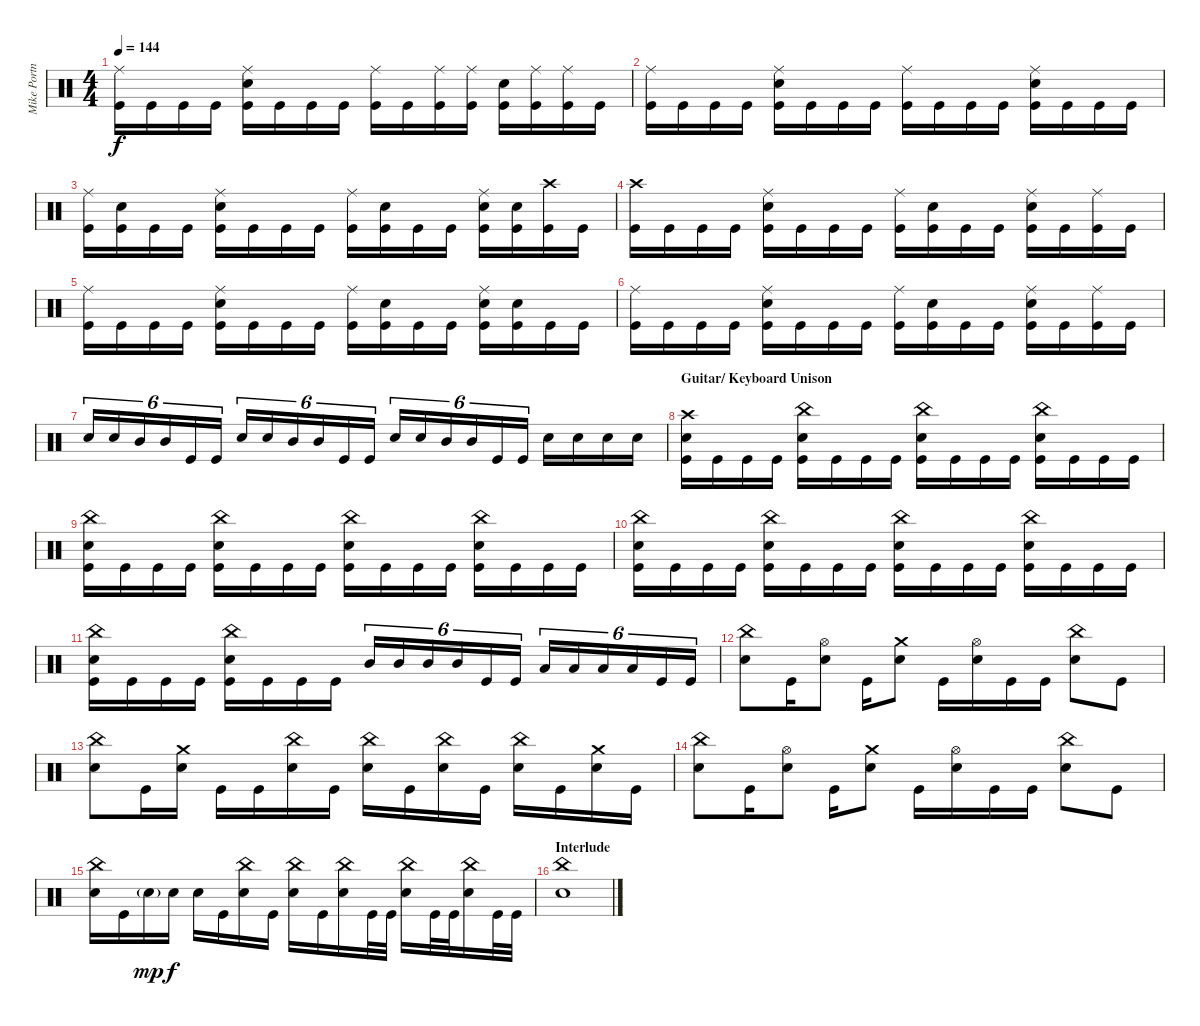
\track ("Mike Portnoy" "Mike Portn") {instrument percussion}
\staff {score}
\articulation defaults
\ts (4 4)
\tempo 144
\clef neutral
\ks c
("Ride (middle)" "Kick (hit)").16{dy f} "Kick (hit)".16 "Kick (hit)".16 "Kick (hit)".16 ("Ride (middle)" "Electric Snare (hit)" "Kick (hit)").16 "Kick (hit)".16 "Kick (hit)".16 "Kick (hit)".16 ("Ride (middle)" "Kick (hit)").16 "Kick (hit)".16 ("Ride (middle)" "Kick (hit)").16 ("Ride (middle)" "Kick (hit)").16 ("Electric Snare (hit)" "Kick (hit)").16 ("Ride (middle)" "Kick (hit)").16 ("Ride (middle)" "Kick (hit)").16 "Kick (hit)".16 |
("Ride (middle)" "Kick (hit)").16 "Kick (hit)".16 "Kick (hit)".16 "Kick (hit)".16 ("Ride (middle)" "Electric Snare (hit)" "Kick (hit)").16 "Kick (hit)".16 "Kick (hit)".16 "Kick (hit)".16 ("Ride (middle)" "Kick (hit)").16 "Kick (hit)".16 "Kick (hit)".16 "Kick (hit)".16 ("Ride (middle)" "Electric Snare (hit)" "Kick (hit)").16 "Kick (hit)".16 "Kick (hit)".16 "Kick (hit)".16 |
("Ride (middle)" "Kick (hit)").16 ("Electric Snare (hit)" "Kick (hit)").16 "Kick (hit)".16 "Kick (hit)".16 ("Ride (middle)" "Electric Snare (hit)" "Kick (hit)").16 "Kick (hit)".16 "Kick (hit)".16 "Kick (hit)".16 ("Ride (middle)" "Kick (hit)").16 ("Electric Snare (hit)" "Kick (hit)").16 "Kick (hit)".16 "Kick (hit)".16 ("Ride (middle)" "Electric Snare (hit)" "Kick (hit)").16 ("Electric Snare (hit)" "Kick (hit)").16 ("Crash high (hit)" "Kick (hit)").16 "Kick (hit)".16 |
("Crash high (hit)" "Kick (hit)").16 "Kick (hit)".16 "Kick (hit)".16 "Kick (hit)".16 ("Ride (middle)" "Electric Snare (hit)" "Kick (hit)").16 "Kick (hit)".16 "Kick (hit)".16 "Kick (hit)".16 ("Ride (middle)" "Kick (hit)").16 ("Electric Snare (hit)" "Kick (hit)").16 "Kick (hit)".16 "Kick (hit)".16 ("Ride (middle)" "Electric Snare (hit)" "Kick (hit)").16 "Kick (hit)".16 ("Ride (middle)" "Kick (hit)").16 "Kick (hit)".16 |
("Ride (middle)" "Kick (hit)").16 "Kick (hit)".16 "Kick (hit)".16 "Kick (hit)".16 ("Ride (middle)" "Electric Snare (hit)" "Kick (hit)").16 "Kick (hit)".16 "Kick (hit)".16 "Kick (hit)".16 ("Ride (middle)" "Kick (hit)").16 ("Electric Snare (hit)" "Kick (hit)").16 "Kick (hit)".16 "Kick (hit)".16 ("Ride (middle)" "Electric Snare (hit)" "Kick (hit)").16 ("Electric Snare (hit)" "Kick (hit)").16 "Kick (hit)".16 "Kick (hit)".16 |
("Ride (middle)" "Kick (hit)").16 "Kick (hit)".16 "Kick (hit)".16 "Kick (hit)".16 ("Ride (middle)" "Electric Snare (hit)" "Kick (hit)").16 "Kick (hit)".16 "Kick (hit)".16 "Kick (hit)".16 ("Ride (middle)" "Kick (hit)").16 ("Electric Snare (hit)" "Kick (hit)").16 "Kick (hit)".16 "Kick (hit)".16 ("Ride (middle)" "Electric Snare (hit)" "Kick (hit)").16 "Kick (hit)".16 ("Ride (middle)" "Kick (hit)").16 "Kick (hit)".16 |
"Electric Snare (hit)".16{tu (6 4)} "Electric Snare (hit)".16{tu (6 4)} "Mid Tom (hit)".16{tu (6 4)} "Mid Tom (hit)".16{tu (6 4)} "Kick (hit)".16{tu (6 4)} "Kick (hit)".16{tu (6 4)} "Electric Snare (hit)".16{tu (6 4)} "Electric Snare (hit)".16{tu (6 4)} "Mid Tom (hit)".16{tu (6 4)} "Mid Tom (hit)".16{tu (6 4)} "Kick (hit)".16{tu (6 4)} "Kick (hit)".16{tu (6 4)} "Electric Snare (hit)".16{tu (6 4)} "Electric Snare (hit)".16{tu (6 4)} "Mid Tom (hit)".16{tu (6 4)} "Mid Tom (hit)".16{tu (6 4)} "Kick (hit)".16{tu (6 4)} "Kick (hit)".16{tu (6 4)} "Electric Snare (hit)".16 "Electric Snare (hit)".16 "Electric Snare (hit)".16 "Electric Snare (hit)".16 |
\section ("" "Guitar/ Keyboard Unison")
("Crash high (hit)" "Electric Snare (hit)" "Kick (hit)").16 "Kick (hit)".16 "Kick (hit)".16 "Kick (hit)".16 ("China (hit)" "Electric Snare (hit)" "Kick (hit)").16 "Kick (hit)".16 "Kick (hit)".16 "Kick (hit)".16 ("China (hit)" "Electric Snare (hit)" "Kick (hit)").16 "Kick (hit)".16 "Kick (hit)".16 "Kick (hit)".16 ("China (hit)" "Electric Snare (hit)" "Kick (hit)").16 "Kick (hit)".16 "Kick (hit)".16 "Kick (hit)".16 |
("China (hit)" "Electric Snare (hit)" "Kick (hit)").16 "Kick (hit)".16 "Kick (hit)".16 "Kick (hit)".16 ("China (hit)" "Electric Snare (hit)" "Kick (hit)").16 "Kick (hit)".16 "Kick (hit)".16 "Kick (hit)".16 ("China (hit)" "Electric Snare (hit)" "Kick (hit)").16 "Kick (hit)".16 "Kick (hit)".16 "Kick (hit)".16 ("China (hit)" "Electric Snare (hit)" "Kick (hit)").16 "Kick (hit)".16 "Kick (hit)".16 "Kick (hit)".16 |
("China (hit)" "Electric Snare (hit)" "Kick (hit)").16 "Kick (hit)".16 "Kick (hit)".16 "Kick (hit)".16 ("China (hit)" "Electric Snare (hit)" "Kick (hit)").16 "Kick (hit)".16 "Kick (hit)".16 "Kick (hit)".16 ("China (hit)" "Electric Snare (hit)" "Kick (hit)").16 "Kick (hit)".16 "Kick (hit)".16 "Kick (hit)".16 ("China (hit)" "Electric Snare (hit)" "Kick (hit)").16 "Kick (hit)".16 "Kick (hit)".16 "Kick (hit)".16 |
("China (hit)" "Electric Snare (hit)" "Kick (hit)").16 "Kick (hit)".16 "Kick (hit)".16 "Kick (hit)".16 ("China (hit)" "Electric Snare (hit)" "Kick (hit)").16 "Kick (hit)".16 "Kick (hit)".16 "Kick (hit)".16 "Mid Tom (hit)".16{tu (6 4)} "Mid Tom (hit)".16{tu (6 4)} "Mid Tom (hit)".16{tu (6 4)} "Mid Tom (hit)".16{tu (6 4)} "Kick (hit)".16{tu (6 4)} "Kick (hit)".16{tu (6 4)} "Low Tom (hit)".16{tu (6 4)} "Low Tom (hit)".16{tu (6 4)} "Low Tom (hit)".16{tu (6 4)} "Low Tom (hit)".16{tu (6 4)} "Kick (hit)".16{tu (6 4)} "Kick (hit)".16{tu (6 4)} |
("China (hit)" "Electric Snare (hit)").8 "Kick (hit)".16 ("Hi-Hat (open)" "Electric Snare (hit)").8 "Kick (hit)".16 ("Crash medium (hit)" "Electric Snare (hit)").8 "Kick (hit)".16 ("Hi-Hat (open)" "Electric Snare (hit)").16 "Kick (hit)".16 "Kick (hit)".16 ("China (hit)" "Electric Snare (hit)").8 "Kick (hit)".8 |
("China (hit)" "Electric Snare (hit)").8 "Kick (hit)".16 ("Crash medium (hit)" "Electric Snare (hit)").16 "Kick (hit)".16 "Kick (hit)".16 ("China (hit)" "Electric Snare (hit)").16 "Kick (hit)".16 ("China (hit)" "Electric Snare (hit)").16 "Kick (hit)".16 ("China (hit)" "Electric Snare (hit)").16 "Kick (hit)".16 ("China (hit)" "Electric Snare (hit)").16 "Kick (hit)".16 ("Crash medium (hit)" "Electric Snare (hit)").16 "Kick (hit)".16 |
("China (hit)" "Electric Snare (hit)").8 "Kick (hit)".16 ("Hi-Hat (open)" "Electric Snare (hit)").8 "Kick (hit)".16 ("Crash medium (hit)" "Electric Snare (hit)").8 "Kick (hit)".16 ("Hi-Hat (open)" "Electric Snare (hit)").16 "Kick (hit)".16 "Kick (hit)".16 ("China (hit)" "Electric Snare (hit)").8 "Kick (hit)".8 |
("China (hit)" "Electric Snare (hit)").16 "Kick (hit)".16 "Electric Snare (hit)"{g}.16{dy mp} "Electric Snare (hit)".16{dy f} "Electric Snare (hit)".16 "Kick (hit)".16 ("China (hit)" "Electric Snare (hit)").16 "Kick (hit)".16 ("China (hit)" "Electric Snare (hit)").16 "Kick (hit)".16 ("China (hit)" "Electric Snare (hit)").16 "Kick (hit)".32 "Kick (hit)".32 ("China (hit)" "Electric Snare (hit)").16 "Kick (hit)".32 "Kick (hit)".32 ("China (hit)" "Electric Snare (hit)").16 "Kick (hit)".32 "Kick (hit)".32 |
\section ("" "Interlude")
("China (hit)" "Electric Snare (hit)").1
